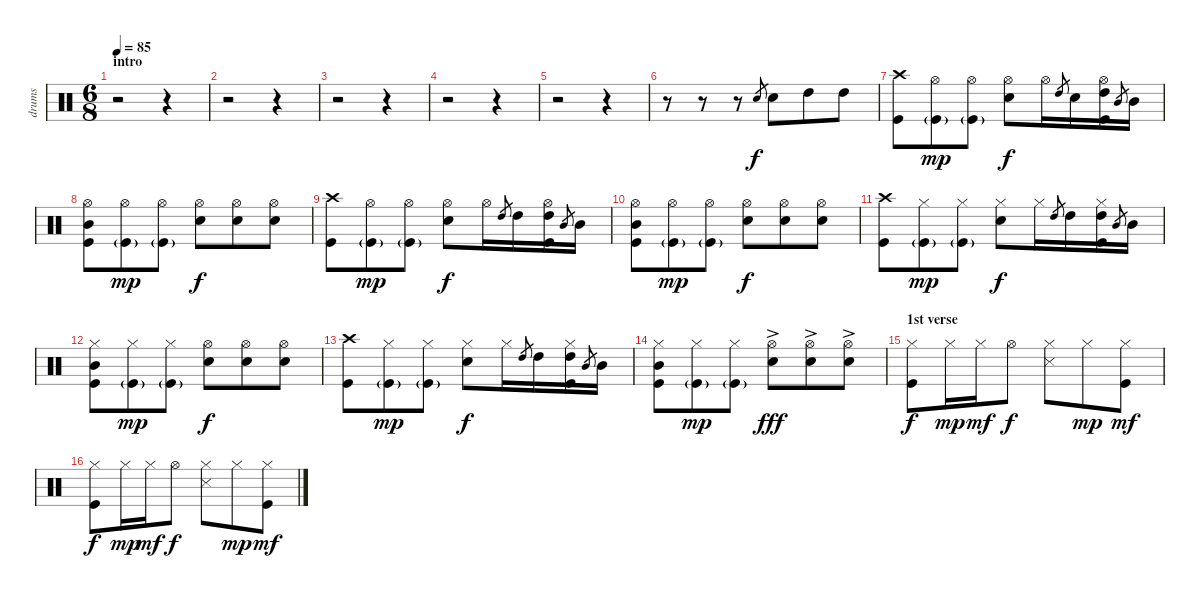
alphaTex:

\track ("drums" "drums") {instrument percussion}
\staff {score}
\articulation defaults
\ts (6 8)
\section ("" "intro")
\tempo 85
\clef neutral
\ks c
r.2{dy f} r.4 |
r.2 r.4 |
r.2 r.4 |
r.2 r.4 |
r.2 r.4 |
r.8 r.8 r.8 "Electric Snare (hit)".8{gr} "Electric Snare (hit)".8 "High Tom (hit)".8 "High Tom (hit)".8 |
("Crash high (hit)" "Kick (hit)").8 ("Hi-Hat (open)" "Kick (hit)"{g}).8{dy mp} ("Hi-Hat (open)" "Kick (hit)"{g}).8 ("Hi-Hat (open)" "Electric Snare (hit)").8{dy f} "Hi-Hat (open)".16 "High Tom (hit)".8{gr} "Snare (hit)".16 ("Hi-Hat (open)" "High Tom (hit)" "Kick (hit)").16 "Mid Tom (hit)".8{gr} "Mid Tom (hit)".16 |
("Hi-Hat (open)" "Mid Tom (hit)" "Kick (hit)").8 ("Hi-Hat (open)" "Kick (hit)"{g}).8{dy mp} ("Hi-Hat (open)" "Kick (hit)"{g}).8 ("Hi-Hat (open)" "Electric Snare (hit)").8{dy f} ("Hi-Hat (open)" "Electric Snare (hit)").8 ("Hi-Hat (open)" "Electric Snare (hit)").8 |
("Crash high (hit)" "Kick (hit)").8 ("Hi-Hat (open)" "Kick (hit)"{g}).8{dy mp} ("Hi-Hat (open)" "Kick (hit)"{g}).8 ("Hi-Hat (open)" "Electric Snare (hit)").8{dy f} "Hi-Hat (open)".16 "High Tom (hit)".8{gr} "High Tom (hit)".16 ("Hi-Hat (open)" "High Tom (hit)" "Kick (hit)").16 "Mid Tom (hit)".8{gr} "Mid Tom (hit)".16 |
("Hi-Hat (open)" "Mid Tom (hit)" "Kick (hit)").8 ("Hi-Hat (open)" "Kick (hit)"{g}).8{dy mp} ("Hi-Hat (open)" "Kick (hit)"{g}).8 ("Hi-Hat (open)" "Electric Snare (hit)").8{dy f} ("Hi-Hat (open)" "Electric Snare (hit)").8 ("Hi-Hat (open)" "Electric Snare (hit)").8 |
("Crash high (hit)" "Kick (hit)").8 ("Hi-Hat (closed)" "Kick (hit)"{g}).8{dy mp} ("Hi-Hat (closed)" "Kick (hit)"{g}).8 ("Hi-Hat (closed)" "Electric Snare (hit)").8{dy f} "Hi-Hat (closed)".16 "High Tom (hit)".8{gr} "High Tom (hit)".16 ("Hi-Hat (closed)" "High Tom (hit)" "Kick (hit)").16 "Mid Tom (hit)".8{gr} "Mid Tom (hit)".16 |
("Hi-Hat (closed)" "Mid Tom (hit)" "Kick (hit)").8 ("Hi-Hat (closed)" "Kick (hit)"{g}).8{dy mp} ("Hi-Hat (closed)" "Kick (hit)"{g}).8 ("Hi-Hat (open)" "Electric Snare (hit)").8{dy f} ("Hi-Hat (open)" "Electric Snare (hit)").8 ("Hi-Hat (open)" "Electric Snare (hit)").8 |
("Crash high (hit)" "Kick (hit)").8 ("Hi-Hat (closed)" "Kick (hit)"{g}).8{dy mp} ("Hi-Hat (closed)" "Kick (hit)"{g}).8 ("Hi-Hat (closed)" "Electric Snare (hit)").8{dy f} "Hi-Hat (closed)".16 "High Tom (hit)".8{gr} "High Tom (hit)".16 ("Hi-Hat (closed)" "High Tom (hit)" "Kick (hit)").16 "Mid Tom (hit)".8{gr} "Mid Tom (hit)".16 |
("Hi-Hat (closed)" "Mid Tom (hit)" "Kick (hit)").8 ("Hi-Hat (closed)" "Kick (hit)"{g}).8{dy mp} ("Hi-Hat (closed)" "Kick (hit)"{g}).8 ("Hi-Hat (open)"{ac} "Electric Snare (hit)").8{dy fff} ("Hi-Hat (open)"{ac} "Electric Snare (hit)").8 ("Hi-Hat (open)"{ac} "Electric Snare (hit)").8 |
\section ("" "1st verse")
("Hi-Hat (closed)" "Kick (hit)").8{dy f} "Hi-Hat (closed)".16{dy mp} "Hi-Hat (closed)".16{dy mf} "Hi-Hat (open)".8{dy f} ("Hi-Hat (closed)" "Snare (side stick) 3").8 "Hi-Hat (closed)".8{dy mp} ("Hi-Hat (closed)" "Kick (hit)").8{dy mf} |
("Hi-Hat (closed)" "Kick (hit)").8{dy f} "Hi-Hat (closed)".16{dy mp} "Hi-Hat (closed)".16{dy mf} "Hi-Hat (open)".8{dy f} ("Hi-Hat (closed)" "Snare (side stick) 3").8 "Hi-Hat (closed)".8{dy mp} ("Hi-Hat (closed)" "Kick (hit)").8{dy mf}
